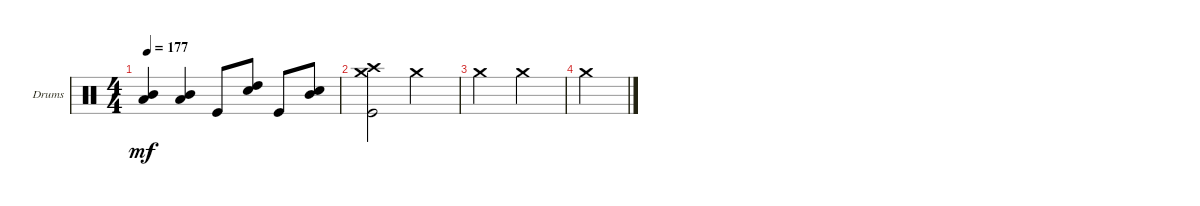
\defaultSystemsLayout 4
\bracketExtendMode groupsimilarinstruments
\firstSystemTrackNameOrientation horizontal
\otherSystemsTrackNameOrientation horizontal
\track ("Johnny Kelly" "Drums") {instrument percussion}
\staff {score}
\articulation defaults
\ts (4 4)
\tempo 177
\clef neutral
\ks c
("Mid Tom (hit)"{t} "Low Tom (hit)"{t}).4{dy mf} ("Mid Tom (hit)" "Low Tom (hit)").4 "Kick (hit)".8 ("High Tom (hit)" "Snare (hit) 2").8 "Kick (hit)".8 ("Snare (hit) 2" "Mid Tom (hit)").8 |
("Kick (hit)" "Crash medium (hit)" "Crash high (hit)").2 "Crash medium (hit)".2 |
"Crash medium (hit)".2 "Crash medium (hit)".2 |
"Crash medium (hit)".2 |
|
|
|
|
\scale
0.251244 |
\scale
0.374793 |
\scale
0.175729 |
\scale
0.195025
